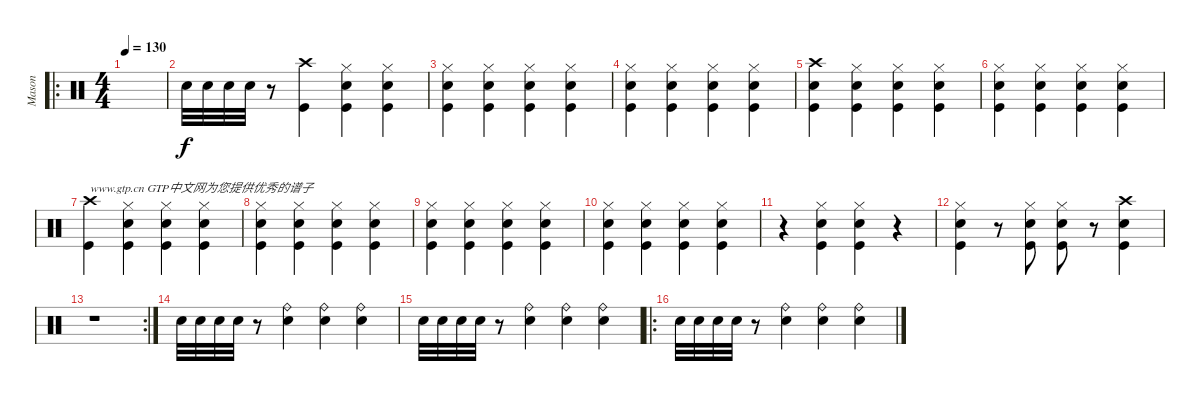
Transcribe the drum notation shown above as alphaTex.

\track ("Mason" "Mason") {instrument percussion}
\staff {score}
\articulation defaults
\ro
\ts (4 4)
\tempo 130
\clef neutral
\ks c
|
"Snare (hit) 2".32 "Snare (hit) 2".32 "Snare (hit) 2".32 "Snare (hit) 2".32 r.8 ("Kick (hit)" "Crash high (hit)").4 ("Kick (hit)" "Snare (hit) 2" "Hi-Hat (closed)").4 ("Kick (hit)" "Snare (hit) 2" "Hi-Hat (closed)").4 |
("Kick (hit)" "Snare (hit) 2" "Hi-Hat (closed)").4 ("Kick (hit)" "Snare (hit) 2" "Hi-Hat (closed)").4 ("Kick (hit)" "Snare (hit) 2" "Hi-Hat (closed)").4 ("Kick (hit)" "Snare (hit) 2" "Hi-Hat (closed)").4 |
("Kick (hit)" "Snare (hit) 2" "Hi-Hat (closed)").4 ("Kick (hit)" "Snare (hit) 2" "Hi-Hat (closed)").4 ("Kick (hit)" "Snare (hit) 2" "Hi-Hat (closed)").4 ("Kick (hit)" "Snare (hit) 2" "Hi-Hat (closed)").4 |
("Kick (hit)" "Snare (hit) 2" "Crash high (hit)").4 ("Kick (hit)" "Snare (hit) 2" "Hi-Hat (closed)").4 ("Kick (hit)" "Snare (hit) 2" "Hi-Hat (closed)").4 ("Kick (hit)" "Snare (hit) 2" "Hi-Hat (closed)").4 |
("Kick (hit)" "Snare (hit) 2" "Hi-Hat (closed)").4 ("Kick (hit)" "Snare (hit) 2" "Hi-Hat (closed)").4 ("Kick (hit)" "Snare (hit) 2" "Hi-Hat (closed)").4 ("Kick (hit)" "Snare (hit) 2" "Hi-Hat (closed)").4 |
("Kick (hit)" "Crash high (hit)").4{txt "www.gtp.cn GTP中文网为您提供优秀的谱子"} ("Kick (hit)" "Snare (hit) 2" "Hi-Hat (closed)").4 ("Kick (hit)" "Snare (hit) 2" "Hi-Hat (closed)").4 ("Kick (hit)" "Snare (hit) 2" "Hi-Hat (closed)").4 |
("Kick (hit)" "Snare (hit) 2" "Hi-Hat (closed)").4 ("Kick (hit)" "Snare (hit) 2" "Hi-Hat (closed)").4 ("Kick (hit)" "Snare (hit) 2" "Hi-Hat (closed)").4 ("Kick (hit)" "Snare (hit) 2" "Hi-Hat (closed)").4 |
("Kick (hit)" "Snare (hit) 2" "Hi-Hat (closed)").4 ("Kick (hit)" "Snare (hit) 2" "Hi-Hat (closed)").4 ("Kick (hit)" "Snare (hit) 2" "Hi-Hat (closed)").4 ("Kick (hit)" "Snare (hit) 2" "Hi-Hat (closed)").4 |
("Kick (hit)" "Snare (hit) 2" "Hi-Hat (closed)").4 ("Kick (hit)" "Snare (hit) 2" "Hi-Hat (closed)").4 ("Kick (hit)" "Snare (hit) 2" "Hi-Hat (closed)").4 ("Kick (hit)" "Snare (hit) 2" "Hi-Hat (closed)").4 |
r.4 ("Kick (hit)" "Snare (hit) 2" "Hi-Hat (closed)").4 ("Kick (hit)" "Snare (hit) 2" "Hi-Hat (closed)").4 r.4 |
("Kick (hit)" "Snare (hit) 2" "Hi-Hat (closed)").4 r.8 ("Kick (hit)" "Snare (hit) 2" "Hi-Hat (closed)").8 ("Kick (hit)" "Snare (hit) 2" "Hi-Hat (closed)").8 r.8 ("Kick (hit)" "Snare (hit) 2" "Crash high (hit)").4 |
\rc 2
r.1 |
"Snare (hit) 2".32 "Snare (hit) 2".32 "Snare (hit) 2".32 "Snare (hit) 2".32 r.8 ("Snare (hit) 2" "Ride (bell)").4 ("Snare (hit) 2" "Ride (bell)").4 ("Snare (hit) 2" "Ride (bell)").4 |
"Snare (hit) 2".32 "Snare (hit) 2".32 "Snare (hit) 2".32 "Snare (hit) 2".32 r.8 ("Snare (hit) 2" "Ride (bell)").4 ("Snare (hit) 2" "Ride (bell)").4 ("Snare (hit) 2" "Ride (bell)").4 |
\ro "Snare (hit) 2".32 "Snare (hit) 2".32 "Snare (hit) 2".32 "Snare (hit) 2".32
r.8 ("Snare (hit) 2" "Ride (bell)").4 ("Snare (hit) 2" "Ride (bell)").4 ("Snare (hit) 2" "Ride (bell)").4
